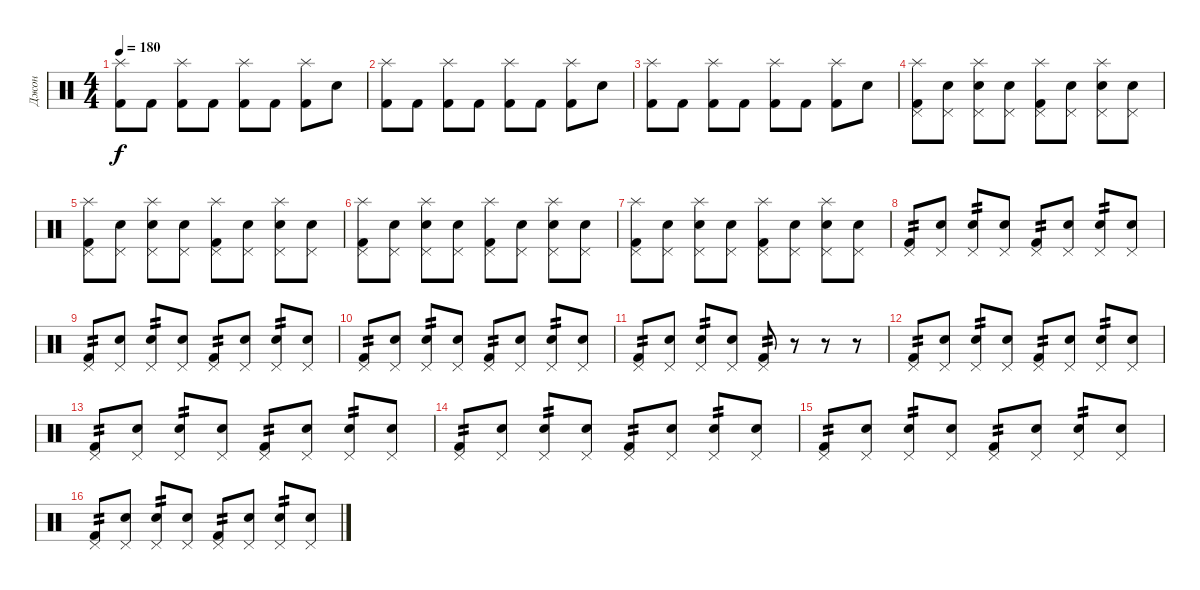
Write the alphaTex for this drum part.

\track ("Джон" "Джон") {instrument percussion}
\staff {score}
\articulation defaults
\ts (4 4)
\tempo 180
\clef neutral
\ks c
("Splash (hit)" "Kick (hit) 2").8{dy f} "Kick (hit) 2".8 ("Splash (hit)" "Kick (hit) 2").8 "Kick (hit) 2".8 ("Splash (hit)" "Kick (hit) 2").8 "Kick (hit) 2".8 ("Splash (hit)" "Kick (hit) 2").8 "Snare (hit)".8 |
("Splash (hit)" "Kick (hit) 2").8 "Kick (hit) 2".8 ("Splash (hit)" "Kick (hit) 2").8 "Kick (hit) 2".8 ("Splash (hit)" "Kick (hit) 2").8 "Kick (hit) 2".8 ("Splash (hit)" "Kick (hit) 2").8 "Snare (hit)".8 |
("Splash (hit)" "Kick (hit) 2").8 "Kick (hit) 2".8 ("Splash (hit)" "Kick (hit) 2").8 "Kick (hit) 2".8 ("Splash (hit)" "Kick (hit) 2").8 "Kick (hit) 2".8 ("Splash (hit)" "Kick (hit) 2").8 "Snare (hit)".8 |
("Splash (hit)" "Pedal Hi-Hat (hit)" "Kick (hit) 2").8 ("Pedal Hi-Hat (hit)" "Snare (hit)").8 ("Splash (hit)" "Pedal Hi-Hat (hit)" "Electric Snare (hit)").8 ("Pedal Hi-Hat (hit)" "Snare (hit)").8 ("Splash (hit)" "Pedal Hi-Hat (hit)" "Kick (hit) 2").8 ("Pedal Hi-Hat (hit)" "Snare (hit)").8 ("Splash (hit)" "Pedal Hi-Hat (hit)" "Electric Snare (hit)").8 ("Pedal Hi-Hat (hit)" "Snare (hit)").8 |
("Splash (hit)" "Pedal Hi-Hat (hit)" "Kick (hit) 2").8 ("Pedal Hi-Hat (hit)" "Snare (hit)").8 ("Splash (hit)" "Pedal Hi-Hat (hit)" "Electric Snare (hit)").8 ("Pedal Hi-Hat (hit)" "Snare (hit)").8 ("Splash (hit)" "Pedal Hi-Hat (hit)" "Kick (hit) 2").8 ("Pedal Hi-Hat (hit)" "Snare (hit)").8 ("Splash (hit)" "Pedal Hi-Hat (hit)" "Electric Snare (hit)").8 ("Pedal Hi-Hat (hit)" "Snare (hit)").8 |
("Splash (hit)" "Pedal Hi-Hat (hit)" "Kick (hit) 2").8 ("Pedal Hi-Hat (hit)" "Snare (hit)").8 ("Splash (hit)" "Pedal Hi-Hat (hit)" "Electric Snare (hit)").8 ("Pedal Hi-Hat (hit)" "Snare (hit)").8 ("Splash (hit)" "Pedal Hi-Hat (hit)" "Kick (hit) 2").8 ("Pedal Hi-Hat (hit)" "Snare (hit)").8 ("Splash (hit)" "Pedal Hi-Hat (hit)" "Electric Snare (hit)").8 ("Pedal Hi-Hat (hit)" "Snare (hit)").8 |
("Splash (hit)" "Pedal Hi-Hat (hit)" "Kick (hit) 2").8 ("Pedal Hi-Hat (hit)" "Snare (hit)").8 ("Splash (hit)" "Pedal Hi-Hat (hit)" "Electric Snare (hit)").8 ("Pedal Hi-Hat (hit)" "Snare (hit)").8 ("Splash (hit)" "Pedal Hi-Hat (hit)" "Kick (hit) 2").8 ("Pedal Hi-Hat (hit)" "Snare (hit)").8 ("Splash (hit)" "Pedal Hi-Hat (hit)" "Electric Snare (hit)").8 ("Pedal Hi-Hat (hit)" "Snare (hit)").8 |
("Pedal Hi-Hat (hit)" "Kick (hit) 2").8{tp 2} ("Pedal Hi-Hat (hit)" "Snare (hit)").8 ("Pedal Hi-Hat (hit)" "Electric Snare (hit)").8{tp 2} ("Pedal Hi-Hat (hit)" "Snare (hit)").8 ("Pedal Hi-Hat (hit)" "Kick (hit) 2").8{tp 2} ("Pedal Hi-Hat (hit)" "Snare (hit)").8 ("Pedal Hi-Hat (hit)" "Electric Snare (hit)").8{tp 2} ("Pedal Hi-Hat (hit)" "Snare (hit)").8 |
("Pedal Hi-Hat (hit)" "Kick (hit) 2").8{tp 2} ("Pedal Hi-Hat (hit)" "Snare (hit)").8 ("Pedal Hi-Hat (hit)" "Electric Snare (hit)").8{tp 2} ("Pedal Hi-Hat (hit)" "Snare (hit)").8 ("Pedal Hi-Hat (hit)" "Kick (hit) 2").8{tp 2} ("Pedal Hi-Hat (hit)" "Snare (hit)").8 ("Pedal Hi-Hat (hit)" "Electric Snare (hit)").8{tp 2} ("Pedal Hi-Hat (hit)" "Snare (hit)").8 |
("Pedal Hi-Hat (hit)" "Kick (hit) 2").8{tp 2} ("Pedal Hi-Hat (hit)" "Snare (hit)").8 ("Pedal Hi-Hat (hit)" "Electric Snare (hit)").8{tp 2} ("Pedal Hi-Hat (hit)" "Snare (hit)").8 ("Pedal Hi-Hat (hit)" "Kick (hit) 2").8{tp 2} ("Pedal Hi-Hat (hit)" "Snare (hit)").8 ("Pedal Hi-Hat (hit)" "Electric Snare (hit)").8{tp 2} ("Pedal Hi-Hat (hit)" "Snare (hit)").8 |
("Pedal Hi-Hat (hit)" "Kick (hit) 2").8{tp 2} ("Pedal Hi-Hat (hit)" "Snare (hit)").8 ("Pedal Hi-Hat (hit)" "Electric Snare (hit)").8{tp 2} ("Pedal Hi-Hat (hit)" "Snare (hit)").8 ("Pedal Hi-Hat (hit)" "Kick (hit) 2").8{tp 2} r.8 r.8 r.8 |
("Pedal Hi-Hat (hit)" "Kick (hit) 2").8{tp 2} ("Pedal Hi-Hat (hit)" "Snare (hit)").8 ("Pedal Hi-Hat (hit)" "Electric Snare (hit)").8{tp 2} ("Pedal Hi-Hat (hit)" "Snare (hit)").8 ("Pedal Hi-Hat (hit)" "Kick (hit) 2").8{tp 2} ("Pedal Hi-Hat (hit)" "Snare (hit)").8 ("Pedal Hi-Hat (hit)" "Electric Snare (hit)").8{tp 2} ("Pedal Hi-Hat (hit)" "Snare (hit)").8 |
("Pedal Hi-Hat (hit)" "Kick (hit) 2").8{tp 2} ("Pedal Hi-Hat (hit)" "Snare (hit)").8 ("Pedal Hi-Hat (hit)" "Electric Snare (hit)").8{tp 2} ("Pedal Hi-Hat (hit)" "Snare (hit)").8 ("Pedal Hi-Hat (hit)" "Kick (hit) 2").8{tp 2} ("Pedal Hi-Hat (hit)" "Snare (hit)").8 ("Pedal Hi-Hat (hit)" "Electric Snare (hit)").8{tp 2} ("Pedal Hi-Hat (hit)" "Snare (hit)").8 |
("Pedal Hi-Hat (hit)" "Kick (hit) 2").8{tp 2} ("Pedal Hi-Hat (hit)" "Snare (hit)").8 ("Pedal Hi-Hat (hit)" "Electric Snare (hit)").8{tp 2} ("Pedal Hi-Hat (hit)" "Snare (hit)").8 ("Pedal Hi-Hat (hit)" "Kick (hit) 2").8{tp 2} ("Pedal Hi-Hat (hit)" "Snare (hit)").8 ("Pedal Hi-Hat (hit)" "Electric Snare (hit)").8{tp 2} ("Pedal Hi-Hat (hit)" "Snare (hit)").8 |
("Pedal Hi-Hat (hit)" "Kick (hit) 2").8{tp 2} ("Pedal Hi-Hat (hit)" "Snare (hit)").8 ("Pedal Hi-Hat (hit)" "Electric Snare (hit)").8{tp 2} ("Pedal Hi-Hat (hit)" "Snare (hit)").8 ("Pedal Hi-Hat (hit)" "Kick (hit) 2").8{tp 2} ("Pedal Hi-Hat (hit)" "Snare (hit)").8 ("Pedal Hi-Hat (hit)" "Electric Snare (hit)").8{tp 2} ("Pedal Hi-Hat (hit)" "Electric Snare (hit)").8 |
("Pedal Hi-Hat (hit)" "Kick (hit) 2").8{tp 2} ("Pedal Hi-Hat (hit)" "Snare (hit)").8 ("Pedal Hi-Hat (hit)" "Electric Snare (hit)").8{tp 2} ("Pedal Hi-Hat (hit)" "Snare (hit)").8 ("Pedal Hi-Hat (hit)" "Kick (hit) 2").8{tp 2} ("Pedal Hi-Hat (hit)" "Snare (hit)").8 ("Pedal Hi-Hat (hit)" "Electric Snare (hit)").8{tp 2} ("Pedal Hi-Hat (hit)" "Snare (hit)").8
